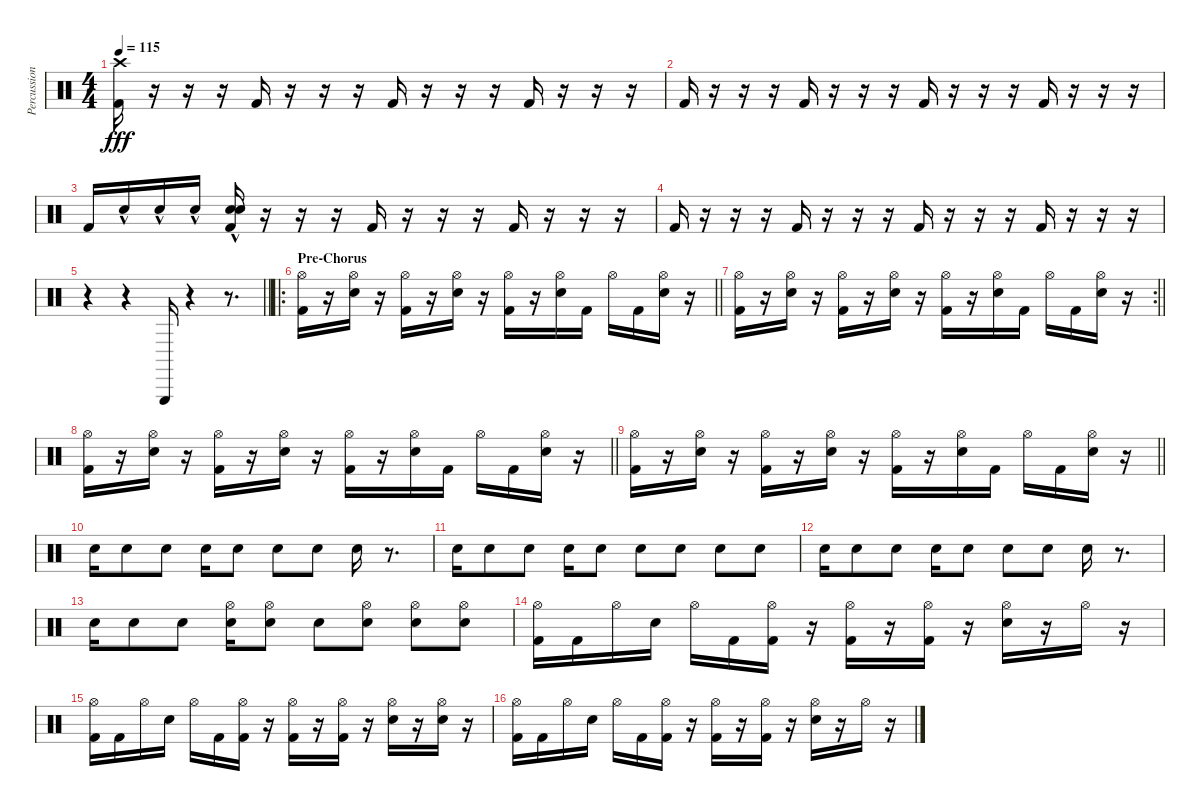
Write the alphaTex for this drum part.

\track ("Percussion 2" "Percussion") {instrument percussion}
\staff {score}
\articulation defaults
\ts (4 4)
\tempo 115
\clef neutral
\ks c
("Crash high (hit)" "Kick (hit) 2").16{dy fff} r.16 r.16 r.16 "Kick (hit) 2".16 r.16 r.16 r.16 "Kick (hit) 2".16 r.16 r.16 r.16 "Kick (hit) 2".16 r.16 r.16 r.16 |
"Kick (hit) 2".16 r.16 r.16 r.16 "Kick (hit) 2".16 r.16 r.16 r.16 "Kick (hit) 2".16 r.16 r.16 r.16 "Kick (hit) 2".16 r.16 r.16 r.16 |
"Kick (hit) 2".16 "Electric Snare (hit)"{hac}.16 "Electric Snare (hit)"{hac}.16 "Electric Snare (hit)"{hac}.16 ("Electric Snare (hit)"{hac} "Electric Snare (hit)"{hac} "Kick (hit) 2").16 r.16 r.16 r.16 "Kick (hit) 2".16 r.16 r.16 r.16 "Kick (hit) 2".16 r.16 r.16 r.16 |
"Kick (hit) 2".16 r.16 r.16 r.16 "Kick (hit) 2".16 r.16 r.16 r.16 "Kick (hit) 2".16 r.16 r.16 r.16 "Kick (hit) 2".16 r.16 r.16 r.16 |
\barLineRight lightlight
r.4 r.4 "Triangle (hit)".16 r.4 r.8{d} |
\ro
\section ("" "Pre-Chorus")
\barLineRight lightlight
("Hi-Hat (open)" "Kick (hit) 2").16 r.16 ("Hi-Hat (open)" "Electric Snare (hit)").16 r.16 ("Hi-Hat (open)" "Kick (hit) 2").16 r.16 ("Hi-Hat (open)" "Electric Snare (hit)").16 r.16 ("Hi-Hat (open)" "Kick (hit) 2").16 r.16 ("Hi-Hat (open)" "Electric Snare (hit)").16 "Kick (hit) 2".16 "Hi-Hat (open)".16 "Kick (hit) 2".16 ("Hi-Hat (open)" "Electric Snare (hit)").16 r.16 |
\rc 2
\barLineRight lightlight
("Hi-Hat (open)" "Kick (hit) 2").16 r.16 ("Hi-Hat (open)" "Electric Snare (hit)").16 r.16 ("Hi-Hat (open)" "Kick (hit) 2").16 r.16 ("Hi-Hat (open)" "Electric Snare (hit)").16 r.16 ("Hi-Hat (open)" "Kick (hit) 2").16 r.16 ("Hi-Hat (open)" "Electric Snare (hit)").16 "Kick (hit) 2".16 "Hi-Hat (open)".16 "Kick (hit) 2".16 ("Hi-Hat (open)" "Electric Snare (hit)").16 r.16 |
\barLineRight lightlight
("Hi-Hat (open)" "Kick (hit) 2").16 r.16 ("Hi-Hat (open)" "Electric Snare (hit)").16 r.16 ("Hi-Hat (open)" "Kick (hit) 2").16 r.16 ("Hi-Hat (open)" "Electric Snare (hit)").16 r.16 ("Hi-Hat (open)" "Kick (hit) 2").16 r.16 ("Hi-Hat (open)" "Electric Snare (hit)").16 "Kick (hit) 2".16 "Hi-Hat (open)".16 "Kick (hit) 2".16 ("Hi-Hat (open)" "Electric Snare (hit)").16 r.16 |
\barLineRight lightlight
("Hi-Hat (open)" "Kick (hit) 2").16 r.16 ("Hi-Hat (open)" "Electric Snare (hit)").16 r.16 ("Hi-Hat (open)" "Kick (hit) 2").16 r.16 ("Hi-Hat (open)" "Electric Snare (hit)").16 r.16 ("Hi-Hat (open)" "Kick (hit) 2").16 r.16 ("Hi-Hat (open)" "Electric Snare (hit)").16 "Kick (hit) 2".16 "Hi-Hat (open)".16 "Kick (hit) 2".16 ("Hi-Hat (open)" "Electric Snare (hit)").16 r.16 |
"Electric Snare (hit)".16 "Electric Snare (hit)".8 "Electric Snare (hit)".8 "Electric Snare (hit)".16 "Electric Snare (hit)".8 "Electric Snare (hit)".8 "Electric Snare (hit)".8 "Electric Snare (hit)".16 r.8{d} |
"Electric Snare (hit)".16 "Electric Snare (hit)".8 "Electric Snare (hit)".8 "Electric Snare (hit)".16 "Electric Snare (hit)".8 "Electric Snare (hit)".8 "Electric Snare (hit)".8 "Electric Snare (hit)".8 "Electric Snare (hit)".8 |
"Electric Snare (hit)".16 "Electric Snare (hit)".8 "Electric Snare (hit)".8 "Electric Snare (hit)".16 "Electric Snare (hit)".8 "Electric Snare (hit)".8 "Electric Snare (hit)".8 "Electric Snare (hit)".16 r.8{d} |
"Electric Snare (hit)".16 "Electric Snare (hit)".8 "Electric Snare (hit)".8 ("Hi-Hat (open)" "Electric Snare (hit)").16 ("Hi-Hat (open)" "Electric Snare (hit)").8 "Electric Snare (hit)".8 ("Hi-Hat (open)" "Electric Snare (hit)").8 ("Hi-Hat (open)" "Electric Snare (hit)").8 ("Hi-Hat (open)" "Electric Snare (hit)").8 |
("Hi-Hat (open)" "Kick (hit) 2").16 "Kick (hit) 2".16 "Hi-Hat (open)".16 "Electric Snare (hit)".16 "Hi-Hat (open)".16 "Kick (hit) 2".16 ("Hi-Hat (open)" "Kick (hit) 2").16 r.16 ("Hi-Hat (open)" "Kick (hit) 2").16 r.16 ("Hi-Hat (open)" "Kick (hit) 2").16 r.16 ("Hi-Hat (open)" "Electric Snare (hit)").16 r.16 "Hi-Hat (open)".16 r.16 |
("Hi-Hat (open)" "Kick (hit) 2").16 "Kick (hit) 2".16 "Hi-Hat (open)".16 "Electric Snare (hit)".16 "Hi-Hat (open)".16 "Kick (hit) 2".16 ("Hi-Hat (open)" "Kick (hit) 2").16 r.16 ("Hi-Hat (open)" "Kick (hit) 2").16 r.16 ("Hi-Hat (open)" "Kick (hit) 2").16 r.16 ("Hi-Hat (open)" "Electric Snare (hit)").16 r.16 ("Hi-Hat (open)" "Electric Snare (hit)").16 r.16 |
("Hi-Hat (open)" "Kick (hit) 2").16 "Kick (hit) 2".16 "Hi-Hat (open)".16 "Electric Snare (hit)".16 "Hi-Hat (open)".16 "Kick (hit) 2".16 ("Hi-Hat (open)" "Kick (hit) 2").16 r.16 ("Hi-Hat (open)" "Kick (hit) 2").16 r.16 ("Hi-Hat (open)" "Kick (hit) 2").16 r.16 ("Hi-Hat (open)" "Electric Snare (hit)").16 r.16 "Hi-Hat (open)".16 r.16
